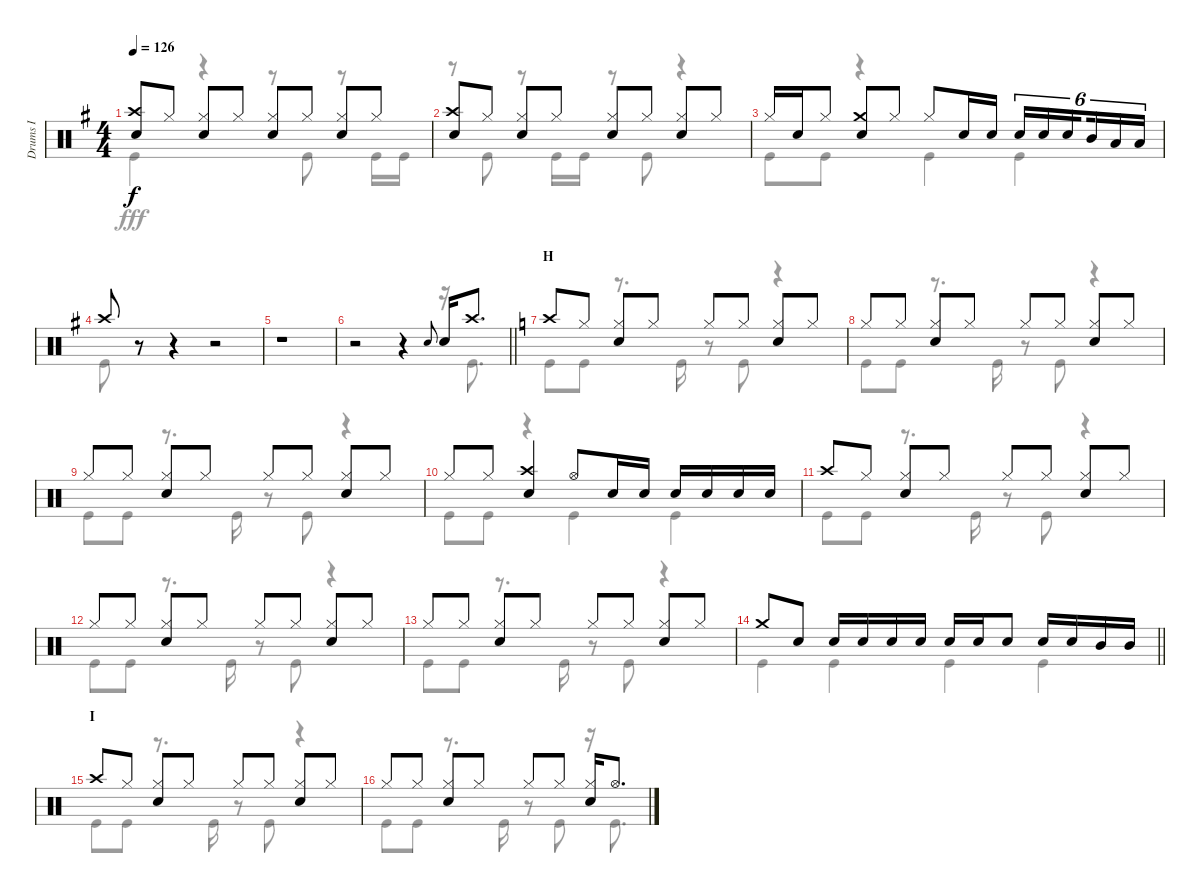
\track ("Drums I" "Drums I") {instrument percussion}
\staff {score}
\articulation defaults
\voice
\ts (4 4)
\tempo 126
\clef neutral
\ks g
("Crash high (hit)" "Snare (hit) 2").8{dy f} "Hi-Hat (closed)".8 ("Hi-Hat (closed)" "Snare (hit) 2").8 "Hi-Hat (closed)".8 ("Hi-Hat (closed)" "Snare (hit) 2").8 "Hi-Hat (closed)".8 ("Hi-Hat (closed)" "Snare (hit) 2").8 "Hi-Hat (closed)".8 |
("Crash high (hit)" "Snare (hit) 2").8 "Hi-Hat (closed)".8 ("Hi-Hat (closed)" "Snare (hit) 2").8 "Hi-Hat (closed)".8 ("Hi-Hat (closed)" "Snare (hit) 2").8 "Hi-Hat (closed)".8 ("Hi-Hat (closed)" "Snare (hit) 2").8 "Hi-Hat (closed)".8 |
"Hi-Hat (closed)".16 "Snare (hit) 2".16 "Hi-Hat (closed)".8 ("Crash medium (hit)" "Snare (hit) 2").8 "Hi-Hat (closed)".8 "Hi-Hat (closed)".8 "Snare (hit) 2".16 "Snare (hit) 2".16 "Snare (hit) 2".16{tu (6 4)} "Snare (hit) 2".16{tu (6 4)} "Snare (hit) 2".16{tu (6 4) beam splitsecondary} "Mid Tom (hit)".16{tu (6 4)} "Low Tom (hit)".16{tu (6 4)} "Low Tom (hit)".16{tu (6 4)} |
"Crash high (hit)".8 r.8 r.4 r.2 |
r.1 |
\barLineRight lightlight
r.2 r.4 "Snare (hit) 2".8{gr onbeat} "Snare (hit) 2".16 "Crash high (hit)".8{d} |
\section ("" "H")
\ks c "Crash high (hit)".8 "Hi-Hat (closed)".8
("Hi-Hat (closed)" "Snare (hit) 2").8 "Hi-Hat (closed)".8 "Hi-Hat (closed)".8 "Hi-Hat (closed)".8 ("Hi-Hat (closed)" "Snare (hit) 2").8 "Hi-Hat (closed)".8 |
"Hi-Hat (closed)".8 "Hi-Hat (closed)".8 ("Hi-Hat (closed)" "Snare (hit) 2").8 "Hi-Hat (closed)".8 "Hi-Hat (closed)".8 "Hi-Hat (closed)".8 ("Hi-Hat (closed)" "Snare (hit) 2").8 "Hi-Hat (closed)".8 |
"Hi-Hat (closed)".8 "Hi-Hat (closed)".8 ("Hi-Hat (closed)" "Snare (hit) 2").8 "Hi-Hat (closed)".8 "Hi-Hat (closed)".8 "Hi-Hat (closed)".8 ("Hi-Hat (closed)" "Snare (hit) 2").8 "Hi-Hat (closed)".8 |
"Hi-Hat (closed)".8 "Hi-Hat (closed)".8 ("Crash high (hit)" "Snare (hit) 2").4 "Hi-Hat (open)".8 "Snare (hit) 2".16 "Snare (hit) 2".16 "Snare (hit) 2".16 "Snare (hit) 2".16 "Snare (hit) 2".16 "Snare (hit) 2".16 |
"Crash high (hit)".8 "Hi-Hat (closed)".8 ("Hi-Hat (closed)" "Snare (hit) 2").8 "Hi-Hat (closed)".8 "Hi-Hat (closed)".8 "Hi-Hat (closed)".8 ("Hi-Hat (closed)" "Snare (hit) 2").8 "Hi-Hat (closed)".8 |
"Hi-Hat (closed)".8 "Hi-Hat (closed)".8 ("Hi-Hat (closed)" "Snare (hit) 2").8 "Hi-Hat (closed)".8 "Hi-Hat (closed)".8 "Hi-Hat (closed)".8 ("Hi-Hat (closed)" "Snare (hit) 2").8 "Hi-Hat (closed)".8 |
"Hi-Hat (closed)".8 "Hi-Hat (closed)".8 ("Hi-Hat (closed)" "Snare (hit) 2").8 "Hi-Hat (closed)".8 "Hi-Hat (closed)".8 "Hi-Hat (closed)".8 ("Hi-Hat (closed)" "Snare (hit) 2").8 "Hi-Hat (closed)".8 |
\barLineRight lightlight "Crash medium (hit)".8 "Snare (hit) 2".8 "Snare (hit) 2".16 "Snare (hit) 2".16 "Snare (hit) 2".16 "Snare (hit) 2".16 "Snare (hit) 2".16 "Snare (hit) 2".16 "Snare (hit) 2".8 "Snare (hit) 2".16 "Snare (hit) 2".16 "Mid Tom (hit)".16 "Mid Tom (hit)".16
|
\section ("" "I")
"Crash high (hit)".8 "Hi-Hat (closed)".8 ("Hi-Hat (closed)" "Snare (hit) 2").8 "Hi-Hat (closed)".8 "Hi-Hat (closed)".8 "Hi-Hat (closed)".8 ("Hi-Hat (closed)" "Snare (hit) 2").8 "Hi-Hat (closed)".8 |
"Hi-Hat (closed)".8 "Hi-Hat (closed)".8 ("Hi-Hat (closed)" "Snare (hit) 2").8 "Hi-Hat (closed)".8 "Hi-Hat (closed)".8 "Hi-Hat (closed)".8 ("Hi-Hat (closed)" "Snare (hit) 2").16 "Hi-Hat (open)".8{d}
\voice
\clef neutral
\ottava regular
\simile none
\ks g "Kick (hit)".4{dy fff}
r.4 r.8 "Kick (hit)".8 r.8 "Kick (hit)".16 "Kick (hit)".16 |
r.8 "Kick (hit)".8 r.8 "Kick (hit)".16 "Kick (hit)".16 r.8 "Kick (hit)".8 r.4 |
"Kick (hit)".8 "Kick (hit)".8 r.4 "Kick (hit)".4 "Kick (hit)".4 |
"Kick (hit)".8 r.8 r.4 r.2 |
r.1 |
\barLineRight lightlight
r.2 r.4 r.16 "Kick (hit)".8{d} |
\ks c "Kick (hit)".8 "Kick (hit)".8
r.8{d} "Kick (hit)".16 r.8 "Kick (hit)".8 r.4 |
"Kick (hit)".8 "Kick (hit)".8 r.8{d} "Kick (hit)".16 r.8 "Kick (hit)".8 r.4 |
"Kick (hit)".8 "Kick (hit)".8 r.8{d} "Kick (hit)".16 r.8 "Kick (hit)".8 r.4 |
"Kick (hit)".8 "Kick (hit)".8 r.4 "Kick (hit)".4 "Kick (hit)".4 |
"Kick (hit)".8 "Kick (hit)".8 r.8{d} "Kick (hit)".16 r.8 "Kick (hit)".8 r.4 |
"Kick (hit)".8 "Kick (hit)".8 r.8{d} "Kick (hit)".16 r.8 "Kick (hit)".8 r.4 |
"Kick (hit)".8 "Kick (hit)".8 r.8{d} "Kick (hit)".16 r.8 "Kick (hit)".8 r.4 |
\barLineRight lightlight "Kick (hit)".4 "Kick (hit)".4 "Kick (hit)".4 "Kick (hit)".4
|
"Kick (hit)".8 "Kick (hit)".8 r.8{d} "Kick (hit)".16 r.8 "Kick (hit)".8 r.4 |
"Kick (hit)".8 "Kick (hit)".8 r.8{d} "Kick (hit)".16 r.8 "Kick (hit)".8 r.16 "Kick (hit)".8{d}
